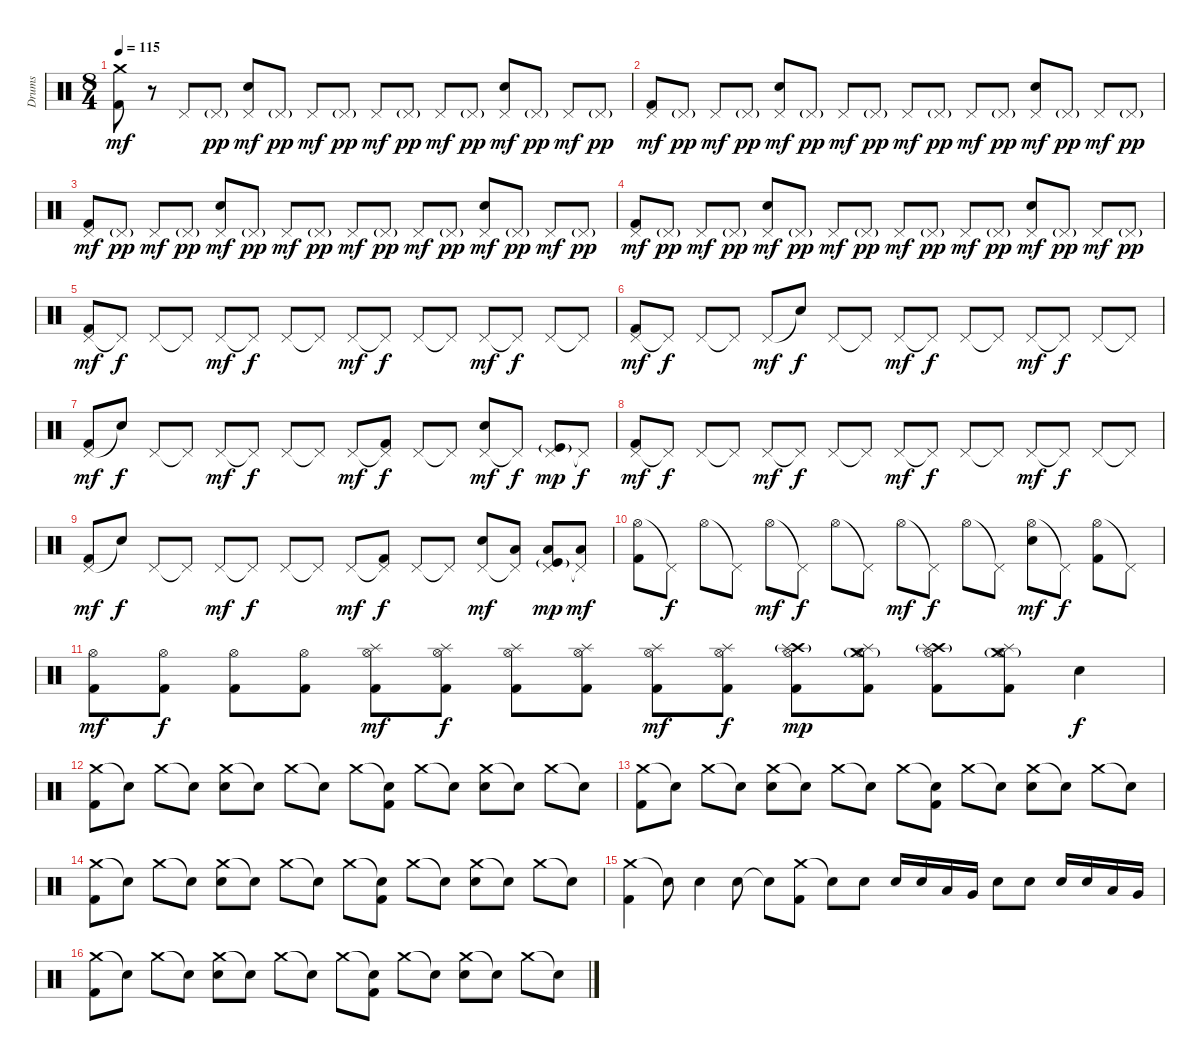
\track ("Drums" "Drums") {instrument percussion}
\staff {score}
\articulation defaults
\ts (8 4)
\tempo 115
\clef neutral
\ks c
("Crash medium (hit)" "Kick (hit) 2").8{dy mf} r.8 "Pedal Hi-Hat (hit)".8 "Pedal Hi-Hat (hit)"{g}.8{dy pp} ("Pedal Hi-Hat (hit)" "Electric Snare (hit)").8{dy mf} "Pedal Hi-Hat (hit)"{g}.8{dy pp} "Pedal Hi-Hat (hit)".8{dy mf} "Pedal Hi-Hat (hit)"{g}.8{dy pp} "Pedal Hi-Hat (hit)".8{dy mf} "Pedal Hi-Hat (hit)"{g}.8{dy pp} "Pedal Hi-Hat (hit)".8{dy mf} "Pedal Hi-Hat (hit)"{g}.8{dy pp} ("Pedal Hi-Hat (hit)" "Electric Snare (hit)").8{dy mf} "Pedal Hi-Hat (hit)"{g}.8{dy pp} "Pedal Hi-Hat (hit)".8{dy mf} "Pedal Hi-Hat (hit)"{g}.8{dy pp} |
("Pedal Hi-Hat (hit)" "Kick (hit) 2").8{dy mf} "Pedal Hi-Hat (hit)"{g}.8{dy pp} "Pedal Hi-Hat (hit)".8{dy mf} "Pedal Hi-Hat (hit)"{g}.8{dy pp} ("Pedal Hi-Hat (hit)" "Electric Snare (hit)").8{dy mf} "Pedal Hi-Hat (hit)"{g}.8{dy pp} "Pedal Hi-Hat (hit)".8{dy mf} "Pedal Hi-Hat (hit)"{g}.8{dy pp} "Pedal Hi-Hat (hit)".8{dy mf} "Pedal Hi-Hat (hit)"{g}.8{dy pp} "Pedal Hi-Hat (hit)".8{dy mf} "Pedal Hi-Hat (hit)"{g}.8{dy pp} ("Pedal Hi-Hat (hit)" "Electric Snare (hit)").8{dy mf} "Pedal Hi-Hat (hit)"{g}.8{dy pp} "Pedal Hi-Hat (hit)".8{dy mf} "Pedal Hi-Hat (hit)"{g}.8{dy pp} |
("Pedal Hi-Hat (hit)" "Kick (hit) 2").8{dy mf} "Pedal Hi-Hat (hit)"{g}.8{dy pp} "Pedal Hi-Hat (hit)".8{dy mf} "Pedal Hi-Hat (hit)"{g}.8{dy pp} ("Pedal Hi-Hat (hit)" "Electric Snare (hit)").8{dy mf} "Pedal Hi-Hat (hit)"{g}.8{dy pp} "Pedal Hi-Hat (hit)".8{dy mf} "Pedal Hi-Hat (hit)"{g}.8{dy pp} "Pedal Hi-Hat (hit)".8{dy mf} "Pedal Hi-Hat (hit)"{g}.8{dy pp} "Pedal Hi-Hat (hit)".8{dy mf} "Pedal Hi-Hat (hit)"{g}.8{dy pp} ("Pedal Hi-Hat (hit)" "Electric Snare (hit)").8{dy mf} "Pedal Hi-Hat (hit)"{g}.8{dy pp} "Pedal Hi-Hat (hit)".8{dy mf} "Pedal Hi-Hat (hit)"{g}.8{dy pp} |
("Pedal Hi-Hat (hit)" "Kick (hit) 2").8{dy mf} "Pedal Hi-Hat (hit)"{g}.8{dy pp} "Pedal Hi-Hat (hit)".8{dy mf} "Pedal Hi-Hat (hit)"{g}.8{dy pp} ("Pedal Hi-Hat (hit)" "Electric Snare (hit)").8{dy mf} "Pedal Hi-Hat (hit)"{g}.8{dy pp} "Pedal Hi-Hat (hit)".8{dy mf} "Pedal Hi-Hat (hit)"{g}.8{dy pp} "Pedal Hi-Hat (hit)".8{dy mf} "Pedal Hi-Hat (hit)"{g}.8{dy pp} "Pedal Hi-Hat (hit)".8{dy mf} "Pedal Hi-Hat (hit)"{g}.8{dy pp} ("Pedal Hi-Hat (hit)" "Electric Snare (hit)").8{dy mf} "Pedal Hi-Hat (hit)"{g}.8{dy pp} "Pedal Hi-Hat (hit)".8{dy mf} "Pedal Hi-Hat (hit)"{g}.8{dy pp} |
("Pedal Hi-Hat (hit)" "Kick (hit) 2").8{dy mf} "Pedal Hi-Hat (hit)"{t}.8{dy f} "Pedal Hi-Hat (hit)".8 "Pedal Hi-Hat (hit)"{t}.8 "Pedal Hi-Hat (hit)".8{dy mf} "Pedal Hi-Hat (hit)"{t}.8{dy f} "Pedal Hi-Hat (hit)".8 "Pedal Hi-Hat (hit)"{t}.8 "Pedal Hi-Hat (hit)".8{dy mf} "Pedal Hi-Hat (hit)"{t}.8{dy f} "Pedal Hi-Hat (hit)".8 "Pedal Hi-Hat (hit)"{t}.8 "Pedal Hi-Hat (hit)".8{dy mf} "Pedal Hi-Hat (hit)"{t}.8{dy f} "Pedal Hi-Hat (hit)".8 "Pedal Hi-Hat (hit)"{t}.8 |
("Pedal Hi-Hat (hit)" "Kick (hit) 2").8{dy mf} "Pedal Hi-Hat (hit)"{t}.8{dy f} "Pedal Hi-Hat (hit)".8 "Pedal Hi-Hat (hit)"{t}.8 "Pedal Hi-Hat (hit)".8{dy mf} "Snare (hit)"{t}.8{dy f} "Pedal Hi-Hat (hit)".8 "Pedal Hi-Hat (hit)"{t}.8 "Pedal Hi-Hat (hit)".8{dy mf} "Pedal Hi-Hat (hit)"{t}.8{dy f} "Pedal Hi-Hat (hit)".8 "Pedal Hi-Hat (hit)"{t}.8 "Pedal Hi-Hat (hit)".8{dy mf} "Pedal Hi-Hat (hit)"{t}.8{dy f} "Pedal Hi-Hat (hit)".8 "Pedal Hi-Hat (hit)"{t}.8 |
("Pedal Hi-Hat (hit)" "Kick (hit) 2").8{dy mf} "Snare (hit)"{t}.8{dy f} "Pedal Hi-Hat (hit)".8 "Pedal Hi-Hat (hit)"{t}.8 "Pedal Hi-Hat (hit)".8{dy mf} "Pedal Hi-Hat (hit)"{t}.8{dy f} "Pedal Hi-Hat (hit)".8 "Pedal Hi-Hat (hit)"{t}.8 "Pedal Hi-Hat (hit)".8{dy mf} ("Pedal Hi-Hat (hit)"{t} "Kick (hit) 2").8{dy f} "Pedal Hi-Hat (hit)".8 "Pedal Hi-Hat (hit)"{t}.8 ("Pedal Hi-Hat (hit)" "Electric Snare (hit)").8{dy mf} "Pedal Hi-Hat (hit)"{t}.8{dy f} ("Pedal Hi-Hat (hit)" "Kick (hit)"{g}).8{dy mp} "Pedal Hi-Hat (hit)"{t}.8{dy f} |
("Pedal Hi-Hat (hit)" "Kick (hit) 2").8{dy mf} "Pedal Hi-Hat (hit)"{t}.8{dy f} "Pedal Hi-Hat (hit)".8 "Pedal Hi-Hat (hit)"{t}.8 "Pedal Hi-Hat (hit)".8{dy mf} "Pedal Hi-Hat (hit)"{t}.8{dy f} "Pedal Hi-Hat (hit)".8 "Pedal Hi-Hat (hit)"{t}.8 "Pedal Hi-Hat (hit)".8{dy mf} "Pedal Hi-Hat (hit)"{t}.8{dy f} "Pedal Hi-Hat (hit)".8 "Pedal Hi-Hat (hit)"{t}.8 "Pedal Hi-Hat (hit)".8{dy mf} "Pedal Hi-Hat (hit)"{t}.8{dy f} "Pedal Hi-Hat (hit)".8 "Pedal Hi-Hat (hit)"{t}.8 |
("Pedal Hi-Hat (hit)" "Kick (hit) 2").8{dy mf} "Snare (hit)"{t}.8{dy f} "Pedal Hi-Hat (hit)".8 "Pedal Hi-Hat (hit)"{t}.8 "Pedal Hi-Hat (hit)".8{dy mf} "Pedal Hi-Hat (hit)"{t}.8{dy f} "Pedal Hi-Hat (hit)".8 "Pedal Hi-Hat (hit)"{t}.8 "Pedal Hi-Hat (hit)".8{dy mf} ("Pedal Hi-Hat (hit)"{t} "Kick (hit) 2").8{dy f} "Pedal Hi-Hat (hit)".8 "Pedal Hi-Hat (hit)"{t}.8 ("Pedal Hi-Hat (hit)" "Electric Snare (hit)").8{dy mf} ("Pedal Hi-Hat (hit)"{t} "Low Tom (hit)").8 ("Pedal Hi-Hat (hit)" "Low Tom (hit)" "Kick (hit)"{g}).8{dy mp} ("Pedal Hi-Hat (hit)"{t} "Low Tom (hit)").8{dy mf} |
("Hi-Hat (open)" "Kick (hit) 2").8 "Pedal Hi-Hat (hit)"{t}.8{dy f} "Hi-Hat (open)".8 "Pedal Hi-Hat (hit)"{t}.8 "Hi-Hat (open)".8{dy mf} "Pedal Hi-Hat (hit)"{t}.8{dy f} "Hi-Hat (open)".8 "Pedal Hi-Hat (hit)"{t}.8 "Hi-Hat (open)".8{dy mf} "Pedal Hi-Hat (hit)"{t}.8{dy f} "Hi-Hat (open)".8 "Pedal Hi-Hat (hit)"{t}.8 ("Hi-Hat (open)" "Electric Snare (hit)").8{dy mf} "Pedal Hi-Hat (hit)"{t}.8{dy f} ("Hi-Hat (open)" "Kick (hit) 2").8 "Pedal Hi-Hat (hit)"{t}.8 |
("Hi-Hat (open)" "Kick (hit) 2").8{dy mf} ("Hi-Hat (open)" "Kick (hit) 2").8{dy f} ("Hi-Hat (open)" "Kick (hit) 2").8 ("Hi-Hat (open)" "Kick (hit) 2").8 ("Hi-Hat (open)" "Splash (hit)" "Kick (hit) 2").8{dy mf} ("Hi-Hat (open)" "Splash (hit)" "Kick (hit) 2").8{dy f} ("Hi-Hat (open)" "Splash (hit)" "Kick (hit) 2").8 ("Hi-Hat (open)" "Splash (hit)" "Kick (hit) 2").8 ("Hi-Hat (open)" "Splash (hit)" "Kick (hit) 2").8{dy mf} ("Hi-Hat (open)" "Splash (hit)" "Kick (hit) 2").8{dy f} ("Hi-Hat (open)" "Crash high (hit)"{g} "Splash (hit)" "Kick (hit) 2").8{dy mp} ("Hi-Hat (open)" "Crash medium (hit)"{g} "Splash (hit)" "Kick (hit) 2").8 ("Hi-Hat (open)" "Crash high (hit)"{g} "Splash (hit)" "Kick (hit) 2").8 ("Hi-Hat (open)" "Crash medium (hit)"{g} "Splash (hit)" "Kick (hit) 2").8 "Electric Snare (hit)".4{dy f} |
("Crash medium (hit)" "Kick (hit) 2").8 "Snare (hit)"{t}.8 "Crash medium (hit)".8 "Snare (hit)"{t}.8 ("Crash medium (hit)" "Electric Snare (hit)").8 "Snare (hit)"{t}.8 "Crash medium (hit)".8 "Snare (hit)"{t}.8 "Crash medium (hit)".8 ("Snare (hit)"{t} "Kick (hit) 2").8 "Crash medium (hit)".8 "Snare (hit)"{t}.8 ("Crash medium (hit)" "Electric Snare (hit)").8 "Snare (hit)"{t}.8 "Crash medium (hit)".8 "Snare (hit)"{t}.8 |
("Crash medium (hit)" "Kick (hit) 2").8 "Snare (hit)"{t}.8 "Crash medium (hit)".8 "Snare (hit)"{t}.8 ("Crash medium (hit)" "Electric Snare (hit)").8 "Snare (hit)"{t}.8 "Crash medium (hit)".8 "Snare (hit)"{t}.8 "Crash medium (hit)".8 ("Snare (hit)"{t} "Kick (hit) 2").8 "Crash medium (hit)".8 "Snare (hit)"{t}.8 ("Crash medium (hit)" "Electric Snare (hit)").8 "Snare (hit)"{t}.8 "Crash medium (hit)".8 "Snare (hit)"{t}.8 |
("Crash medium (hit)" "Kick (hit) 2").8 "Snare (hit)"{t}.8 "Crash medium (hit)".8 "Snare (hit)"{t}.8 ("Crash medium (hit)" "Electric Snare (hit)").8 "Snare (hit)"{t}.8 "Crash medium (hit)".8 "Snare (hit)"{t}.8 "Crash medium (hit)".8 ("Snare (hit)"{t} "Kick (hit) 2").8 "Crash medium (hit)".8 "Snare (hit)"{t}.8 ("Crash medium (hit)" "Electric Snare (hit)").8 "Snare (hit)"{t}.8 "Crash medium (hit)".8 "Snare (hit)"{t}.8 |
("Crash medium (hit)" "Kick (hit) 2").4 "Snare (hit)"{t}.8 "Electric Snare (hit)".4 "Electric Snare (hit)".8 "Snare (hit)"{t}.8 ("Crash medium (hit)" "Kick (hit) 2").8 "Snare (hit)"{t}.8 "Electric Snare (hit)".8 "Electric Snare (hit)".16 "Electric Snare (hit)".16 "Low Tom (hit)".16 "Very Low Tom (hit)".16 "Electric Snare (hit)".8 "Electric Snare (hit)".8 "Electric Snare (hit)".16 "Electric Snare (hit)".16 "Low Tom (hit)".16 "Very Low Tom (hit)".16 |
("Crash medium (hit)" "Kick (hit) 2").8 "Snare (hit)"{t}.8 "Crash medium (hit)".8 "Snare (hit)"{t}.8 ("Crash medium (hit)" "Electric Snare (hit)").8 "Snare (hit)"{t}.8 "Crash medium (hit)".8 "Snare (hit)"{t}.8 "Crash medium (hit)".8 ("Snare (hit)"{t} "Kick (hit) 2").8 "Crash medium (hit)".8 "Snare (hit)"{t}.8 ("Crash medium (hit)" "Electric Snare (hit)").8 "Snare (hit)"{t}.8 "Crash medium (hit)".8 "Snare (hit)"{t}.8
